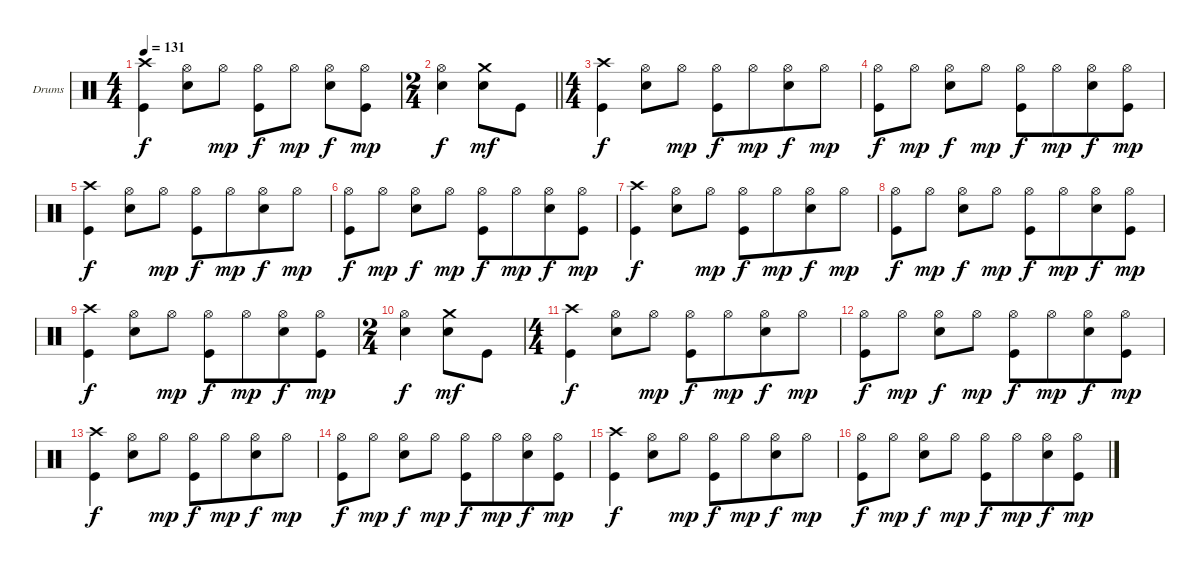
\bracketExtendMode groupsimilarinstruments
\firstSystemTrackNameOrientation horizontal
\otherSystemsTrackNameOrientation horizontal
\track ("Drumkit" "Drums") {instrument percussion}
\staff {score}
\articulation defaults
\ts (4 4)
\tempo 131
\clef neutral
\ks c
("Crash high (hit)" "Kick (hit)").4{dy f} ("Hi-Hat (open)" "Snare (hit) 2").8 "Hi-Hat (open)".8{dy mp} ("Hi-Hat (open)" "Kick (hit)").8{dy f} "Hi-Hat (open)".8{dy mp} ("Hi-Hat (open)" "Snare (hit) 2").8{dy f} ("Hi-Hat (open)" "Kick (hit)").8{dy mp} |
\ts (2 4)
\beaming (8 2 2)
\barLineRight lightlight
("Hi-Hat (open)" "Snare (hit) 2").4{dy f} ("Crash medium (hit)" "Snare (hit) 2").8{dy mf} "Kick (hit)".8 |
\ts (4 4)
\beaming (8 2 2 4)
("Crash high (hit)" "Kick (hit)").4{dy f} ("Hi-Hat (open)" "Snare (hit) 2").8 "Hi-Hat (open)".8{dy mp} ("Hi-Hat (open)" "Kick (hit)").8{dy f} "Hi-Hat (open)".8{dy mp} ("Hi-Hat (open)" "Snare (hit) 2").8{dy f} "Hi-Hat (open)".8{dy mp} |
("Hi-Hat (open)" "Kick (hit)").8{dy f} "Hi-Hat (open)".8{dy mp} ("Hi-Hat (open)" "Snare (hit) 2").8{dy f} "Hi-Hat (open)".8{dy mp} ("Hi-Hat (open)" "Kick (hit)").8{dy f} "Hi-Hat (open)".8{dy mp} ("Hi-Hat (open)" "Snare (hit) 2").8{dy f} ("Hi-Hat (open)" "Kick (hit)").8{dy mp} |
("Crash high (hit)" "Kick (hit)").4{dy f} ("Hi-Hat (open)" "Snare (hit) 2").8 "Hi-Hat (open)".8{dy mp} ("Hi-Hat (open)" "Kick (hit)").8{dy f} "Hi-Hat (open)".8{dy mp} ("Hi-Hat (open)" "Snare (hit) 2").8{dy f} "Hi-Hat (open)".8{dy mp} |
("Hi-Hat (open)" "Kick (hit)").8{dy f} "Hi-Hat (open)".8{dy mp} ("Hi-Hat (open)" "Snare (hit) 2").8{dy f} "Hi-Hat (open)".8{dy mp} ("Hi-Hat (open)" "Kick (hit)").8{dy f} "Hi-Hat (open)".8{dy mp} ("Hi-Hat (open)" "Snare (hit) 2").8{dy f} ("Hi-Hat (open)" "Kick (hit)").8{dy mp} |
("Crash high (hit)" "Kick (hit)").4{dy f} ("Hi-Hat (open)" "Snare (hit) 2").8 "Hi-Hat (open)".8{dy mp} ("Hi-Hat (open)" "Kick (hit)").8{dy f} "Hi-Hat (open)".8{dy mp} ("Hi-Hat (open)" "Snare (hit) 2").8{dy f} "Hi-Hat (open)".8{dy mp} |
("Hi-Hat (open)" "Kick (hit)").8{dy f} "Hi-Hat (open)".8{dy mp} ("Hi-Hat (open)" "Snare (hit) 2").8{dy f} "Hi-Hat (open)".8{dy mp} ("Hi-Hat (open)" "Kick (hit)").8{dy f} "Hi-Hat (open)".8{dy mp} ("Hi-Hat (open)" "Snare (hit) 2").8{dy f} ("Hi-Hat (open)" "Kick (hit)").8{dy mp} |
("Crash high (hit)" "Kick (hit)").4{dy f} ("Hi-Hat (open)" "Snare (hit) 2").8 "Hi-Hat (open)".8{dy mp} ("Hi-Hat (open)" "Kick (hit)").8{dy f} "Hi-Hat (open)".8{dy mp} ("Hi-Hat (open)" "Snare (hit) 2").8{dy f} ("Hi-Hat (open)" "Kick (hit)").8{dy mp} |
\ts (2 4)
\beaming (8 2 2)
("Hi-Hat (open)" "Snare (hit) 2").4{dy f} ("Crash medium (hit)" "Snare (hit) 2").8{dy mf} "Kick (hit)".8 |
\ts (4 4)
\beaming (8 2 2 4)
("Crash high (hit)" "Kick (hit)").4{dy f} ("Hi-Hat (open)" "Snare (hit) 2").8 "Hi-Hat (open)".8{dy mp} ("Hi-Hat (open)" "Kick (hit)").8{dy f} "Hi-Hat (open)".8{dy mp} ("Hi-Hat (open)" "Snare (hit) 2").8{dy f} "Hi-Hat (open)".8{dy mp} |
("Hi-Hat (open)" "Kick (hit)").8{dy f} "Hi-Hat (open)".8{dy mp} ("Hi-Hat (open)" "Snare (hit) 2").8{dy f} "Hi-Hat (open)".8{dy mp} ("Hi-Hat (open)" "Kick (hit)").8{dy f} "Hi-Hat (open)".8{dy mp} ("Hi-Hat (open)" "Snare (hit) 2").8{dy f} ("Hi-Hat (open)" "Kick (hit)").8{dy mp} |
("Crash high (hit)" "Kick (hit)").4{dy f} ("Hi-Hat (open)" "Snare (hit) 2").8 "Hi-Hat (open)".8{dy mp} ("Hi-Hat (open)" "Kick (hit)").8{dy f} "Hi-Hat (open)".8{dy mp} ("Hi-Hat (open)" "Snare (hit) 2").8{dy f} "Hi-Hat (open)".8{dy mp} |
("Hi-Hat (open)" "Kick (hit)").8{dy f} "Hi-Hat (open)".8{dy mp} ("Hi-Hat (open)" "Snare (hit) 2").8{dy f} "Hi-Hat (open)".8{dy mp} ("Hi-Hat (open)" "Kick (hit)").8{dy f} "Hi-Hat (open)".8{dy mp} ("Hi-Hat (open)" "Snare (hit) 2").8{dy f} ("Hi-Hat (open)" "Kick (hit)").8{dy mp} |
("Crash high (hit)" "Kick (hit)").4{dy f} ("Hi-Hat (open)" "Snare (hit) 2").8 "Hi-Hat (open)".8{dy mp} ("Hi-Hat (open)" "Kick (hit)").8{dy f} "Hi-Hat (open)".8{dy mp} ("Hi-Hat (open)" "Snare (hit) 2").8{dy f} "Hi-Hat (open)".8{dy mp} |
("Hi-Hat (open)" "Kick (hit)").8{dy f} "Hi-Hat (open)".8{dy mp} ("Hi-Hat (open)" "Snare (hit) 2").8{dy f} "Hi-Hat (open)".8{dy mp} ("Hi-Hat (open)" "Kick (hit)").8{dy f} "Hi-Hat (open)".8{dy mp} ("Hi-Hat (open)" "Snare (hit) 2").8{dy f} ("Hi-Hat (open)" "Kick (hit)").8{dy mp}
